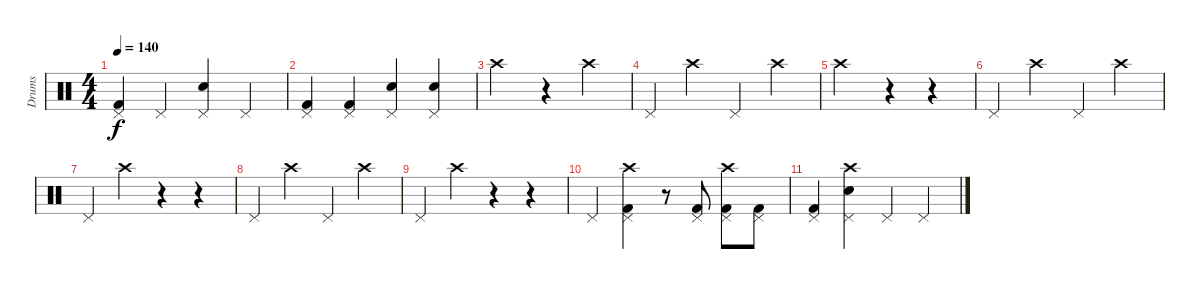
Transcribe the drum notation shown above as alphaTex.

\track ("Drums" "Drums") {instrument percussion}
\staff {score}
\articulation defaults
\ts (4 4)
\tempo 140
\clef neutral
\ks c
("Pedal Hi-Hat (hit)" "Kick (hit) 2").4{dy f} "Pedal Hi-Hat (hit)".4 ("Pedal Hi-Hat (hit)" "Electric Snare (hit)").4 "Pedal Hi-Hat (hit)".4 |
("Pedal Hi-Hat (hit)" "Kick (hit) 2").4 ("Pedal Hi-Hat (hit)" "Kick (hit) 2").4 ("Pedal Hi-Hat (hit)" "Electric Snare (hit)").4 ("Pedal Hi-Hat (hit)" "Electric Snare (hit)").4 |
"Crash high (hit)".2 r.4 "Crash high (hit)".4 |
"Pedal Hi-Hat (hit)".4 "Crash high (hit)".4 "Pedal Hi-Hat (hit)".4 "Crash high (hit)".4 |
"Crash high (hit)".2 r.4 r.4 |
"Pedal Hi-Hat (hit)".4 "Crash high (hit)".4 "Pedal Hi-Hat (hit)".4 "Crash high (hit)".4 |
"Pedal Hi-Hat (hit)".4 "Crash high (hit)".4 r.4 r.4 |
"Pedal Hi-Hat (hit)".4 "Crash high (hit)".4 "Pedal Hi-Hat (hit)".4 "Crash high (hit)".4 |
"Pedal Hi-Hat (hit)".4 "Crash high (hit)".4 r.4 r.4 |
"Pedal Hi-Hat (hit)".4 ("Pedal Hi-Hat (hit)" "Crash high (hit)" "Kick (hit) 2").4 r.8 ("Pedal Hi-Hat (hit)" "Kick (hit) 2").8 ("Pedal Hi-Hat (hit)" "Kick (hit) 2" "Crash high (hit)").8 ("Pedal Hi-Hat (hit)" "Kick (hit) 2").8 |
("Pedal Hi-Hat (hit)" "Kick (hit) 2").4 ("Pedal Hi-Hat (hit)" "Crash high (hit)" "Electric Snare (hit)").4 "Pedal Hi-Hat (hit)".4 "Pedal Hi-Hat (hit)".4
